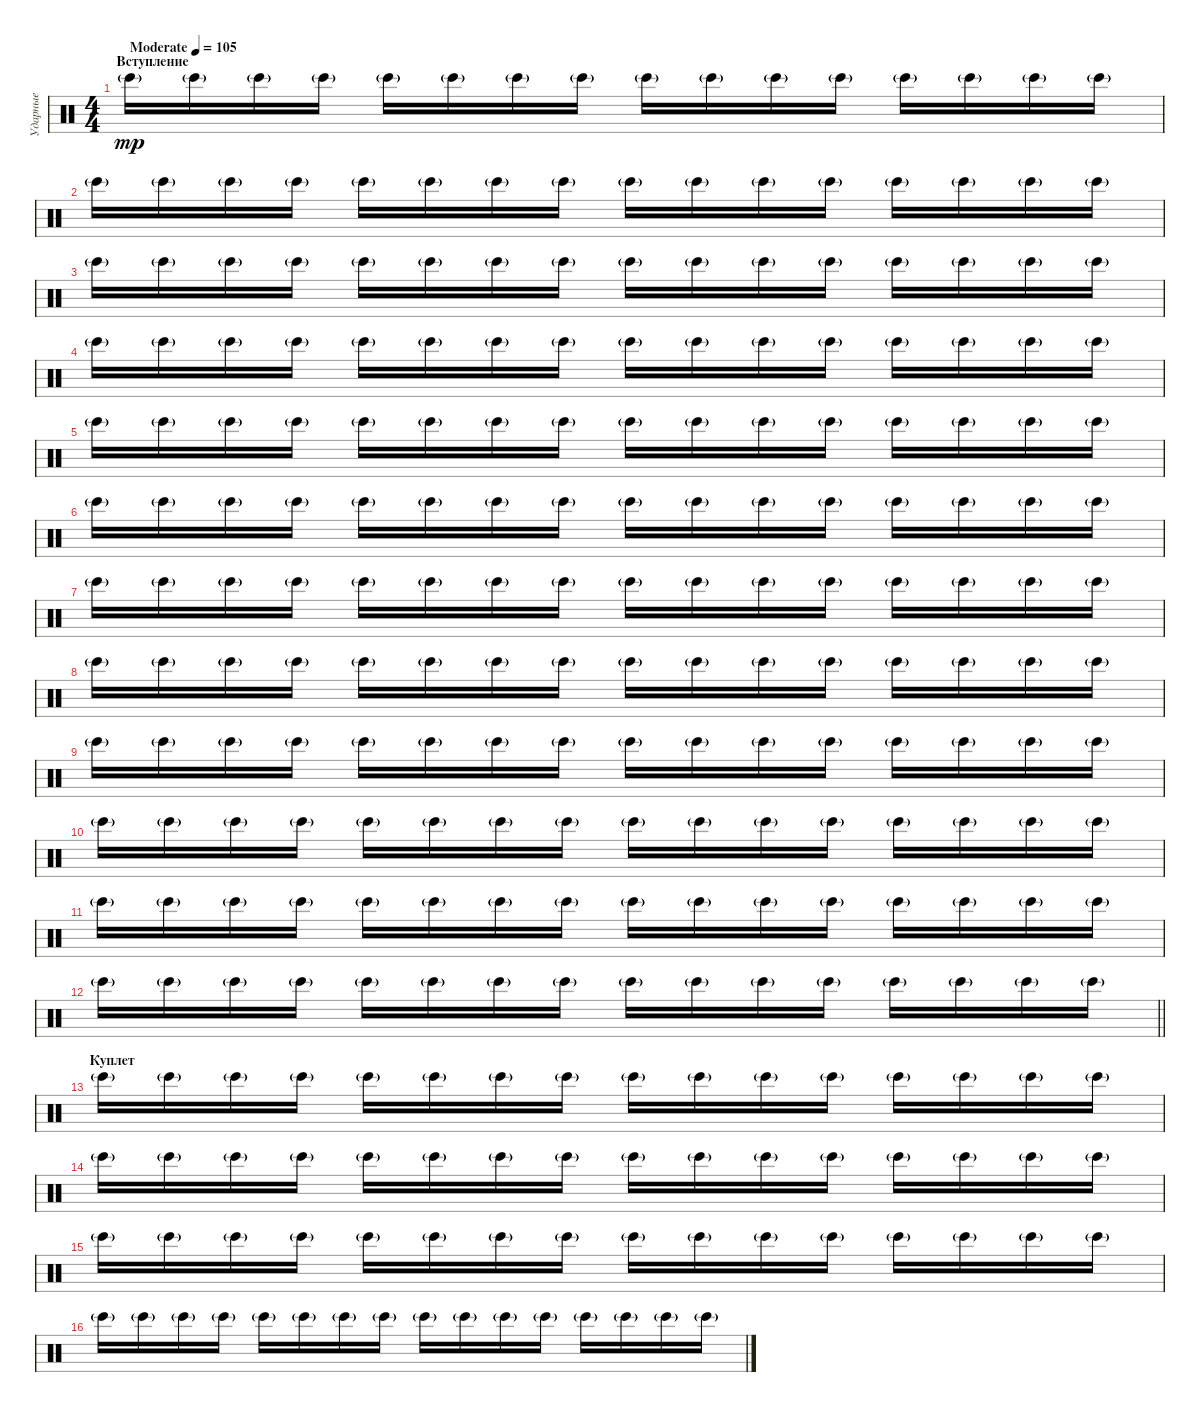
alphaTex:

\track ("Ударные" "Ударные") {instrument percussion}
\staff {score}
\articulation defaults
\ts (4 4)
\section ("" "Вступление")
\tempo (105 "Moderate")
\clef neutral
\ks c "Bongo High (hit)"{g}.16{dy mp} "Bongo High (hit)"{g}.16 "Bongo High (hit)"{g}.16 "Bongo High (hit)"{g}.16 "Bongo High (hit)"{g}.16 "Bongo High (hit)"{g}.16 "Bongo High (hit)"{g}.16 "Bongo High (hit)"{g}.16 "Bongo High (hit)"{g}.16 "Bongo High (hit)"{g}.16 "Bongo High (hit)"{g}.16 "Bongo High (hit)"{g}.16 "Bongo High (hit)"{g}.16 "Bongo High (hit)"{g}.16 "Bongo High (hit)"{g}.16 "Bongo High (hit)"{g}.16
|
"Bongo High (hit)"{g}.16 "Bongo High (hit)"{g}.16 "Bongo High (hit)"{g}.16 "Bongo High (hit)"{g}.16 "Bongo High (hit)"{g}.16 "Bongo High (hit)"{g}.16 "Bongo High (hit)"{g}.16 "Bongo High (hit)"{g}.16 "Bongo High (hit)"{g}.16 "Bongo High (hit)"{g}.16 "Bongo High (hit)"{g}.16 "Bongo High (hit)"{g}.16 "Bongo High (hit)"{g}.16 "Bongo High (hit)"{g}.16 "Bongo High (hit)"{g}.16 "Bongo High (hit)"{g}.16 |
"Bongo High (hit)"{g}.16 "Bongo High (hit)"{g}.16 "Bongo High (hit)"{g}.16 "Bongo High (hit)"{g}.16 "Bongo High (hit)"{g}.16 "Bongo High (hit)"{g}.16 "Bongo High (hit)"{g}.16 "Bongo High (hit)"{g}.16 "Bongo High (hit)"{g}.16 "Bongo High (hit)"{g}.16 "Bongo High (hit)"{g}.16 "Bongo High (hit)"{g}.16 "Bongo High (hit)"{g}.16 "Bongo High (hit)"{g}.16 "Bongo High (hit)"{g}.16 "Bongo High (hit)"{g}.16 |
"Bongo High (hit)"{g}.16 "Bongo High (hit)"{g}.16 "Bongo High (hit)"{g}.16 "Bongo High (hit)"{g}.16 "Bongo High (hit)"{g}.16 "Bongo High (hit)"{g}.16 "Bongo High (hit)"{g}.16 "Bongo High (hit)"{g}.16 "Bongo High (hit)"{g}.16 "Bongo High (hit)"{g}.16 "Bongo High (hit)"{g}.16 "Bongo High (hit)"{g}.16 "Bongo High (hit)"{g}.16 "Bongo High (hit)"{g}.16 "Bongo High (hit)"{g}.16 "Bongo High (hit)"{g}.16 |
"Bongo High (hit)"{g}.16 "Bongo High (hit)"{g}.16 "Bongo High (hit)"{g}.16 "Bongo High (hit)"{g}.16 "Bongo High (hit)"{g}.16 "Bongo High (hit)"{g}.16 "Bongo High (hit)"{g}.16 "Bongo High (hit)"{g}.16 "Bongo High (hit)"{g}.16 "Bongo High (hit)"{g}.16 "Bongo High (hit)"{g}.16 "Bongo High (hit)"{g}.16 "Bongo High (hit)"{g}.16 "Bongo High (hit)"{g}.16 "Bongo High (hit)"{g}.16 "Bongo High (hit)"{g}.16 |
"Bongo High (hit)"{g}.16 "Bongo High (hit)"{g}.16 "Bongo High (hit)"{g}.16 "Bongo High (hit)"{g}.16 "Bongo High (hit)"{g}.16 "Bongo High (hit)"{g}.16 "Bongo High (hit)"{g}.16 "Bongo High (hit)"{g}.16 "Bongo High (hit)"{g}.16 "Bongo High (hit)"{g}.16 "Bongo High (hit)"{g}.16 "Bongo High (hit)"{g}.16 "Bongo High (hit)"{g}.16 "Bongo High (hit)"{g}.16 "Bongo High (hit)"{g}.16 "Bongo High (hit)"{g}.16 |
"Bongo High (hit)"{g}.16 "Bongo High (hit)"{g}.16 "Bongo High (hit)"{g}.16 "Bongo High (hit)"{g}.16 "Bongo High (hit)"{g}.16 "Bongo High (hit)"{g}.16 "Bongo High (hit)"{g}.16 "Bongo High (hit)"{g}.16 "Bongo High (hit)"{g}.16 "Bongo High (hit)"{g}.16 "Bongo High (hit)"{g}.16 "Bongo High (hit)"{g}.16 "Bongo High (hit)"{g}.16 "Bongo High (hit)"{g}.16 "Bongo High (hit)"{g}.16 "Bongo High (hit)"{g}.16 |
"Bongo High (hit)"{g}.16 "Bongo High (hit)"{g}.16 "Bongo High (hit)"{g}.16 "Bongo High (hit)"{g}.16 "Bongo High (hit)"{g}.16 "Bongo High (hit)"{g}.16 "Bongo High (hit)"{g}.16 "Bongo High (hit)"{g}.16 "Bongo High (hit)"{g}.16 "Bongo High (hit)"{g}.16 "Bongo High (hit)"{g}.16 "Bongo High (hit)"{g}.16 "Bongo High (hit)"{g}.16 "Bongo High (hit)"{g}.16 "Bongo High (hit)"{g}.16 "Bongo High (hit)"{g}.16 |
"Bongo High (hit)"{g}.16 "Bongo High (hit)"{g}.16 "Bongo High (hit)"{g}.16 "Bongo High (hit)"{g}.16 "Bongo High (hit)"{g}.16 "Bongo High (hit)"{g}.16 "Bongo High (hit)"{g}.16 "Bongo High (hit)"{g}.16 "Bongo High (hit)"{g}.16 "Bongo High (hit)"{g}.16 "Bongo High (hit)"{g}.16 "Bongo High (hit)"{g}.16 "Bongo High (hit)"{g}.16 "Bongo High (hit)"{g}.16 "Bongo High (hit)"{g}.16 "Bongo High (hit)"{g}.16 |
"Bongo High (hit)"{g}.16 "Bongo High (hit)"{g}.16 "Bongo High (hit)"{g}.16 "Bongo High (hit)"{g}.16 "Bongo High (hit)"{g}.16 "Bongo High (hit)"{g}.16 "Bongo High (hit)"{g}.16 "Bongo High (hit)"{g}.16 "Bongo High (hit)"{g}.16 "Bongo High (hit)"{g}.16 "Bongo High (hit)"{g}.16 "Bongo High (hit)"{g}.16 "Bongo High (hit)"{g}.16 "Bongo High (hit)"{g}.16 "Bongo High (hit)"{g}.16 "Bongo High (hit)"{g}.16 |
"Bongo High (hit)"{g}.16 "Bongo High (hit)"{g}.16 "Bongo High (hit)"{g}.16 "Bongo High (hit)"{g}.16 "Bongo High (hit)"{g}.16 "Bongo High (hit)"{g}.16 "Bongo High (hit)"{g}.16 "Bongo High (hit)"{g}.16 "Bongo High (hit)"{g}.16 "Bongo High (hit)"{g}.16 "Bongo High (hit)"{g}.16 "Bongo High (hit)"{g}.16 "Bongo High (hit)"{g}.16 "Bongo High (hit)"{g}.16 "Bongo High (hit)"{g}.16 "Bongo High (hit)"{g}.16 |
\barLineRight lightlight "Bongo High (hit)"{g}.16 "Bongo High (hit)"{g}.16 "Bongo High (hit)"{g}.16 "Bongo High (hit)"{g}.16 "Bongo High (hit)"{g}.16 "Bongo High (hit)"{g}.16 "Bongo High (hit)"{g}.16 "Bongo High (hit)"{g}.16 "Bongo High (hit)"{g}.16 "Bongo High (hit)"{g}.16 "Bongo High (hit)"{g}.16 "Bongo High (hit)"{g}.16 "Bongo High (hit)"{g}.16 "Bongo High (hit)"{g}.16 "Bongo High (hit)"{g}.16 "Bongo High (hit)"{g}.16
|
\section ("" "Куплет")
"Bongo High (hit)"{g}.16 "Bongo High (hit)"{g}.16 "Bongo High (hit)"{g}.16 "Bongo High (hit)"{g}.16 "Bongo High (hit)"{g}.16 "Bongo High (hit)"{g}.16 "Bongo High (hit)"{g}.16 "Bongo High (hit)"{g}.16 "Bongo High (hit)"{g}.16 "Bongo High (hit)"{g}.16 "Bongo High (hit)"{g}.16 "Bongo High (hit)"{g}.16 "Bongo High (hit)"{g}.16 "Bongo High (hit)"{g}.16 "Bongo High (hit)"{g}.16 "Bongo High (hit)"{g}.16 |
"Bongo High (hit)"{g}.16 "Bongo High (hit)"{g}.16 "Bongo High (hit)"{g}.16 "Bongo High (hit)"{g}.16 "Bongo High (hit)"{g}.16 "Bongo High (hit)"{g}.16 "Bongo High (hit)"{g}.16 "Bongo High (hit)"{g}.16 "Bongo High (hit)"{g}.16 "Bongo High (hit)"{g}.16 "Bongo High (hit)"{g}.16 "Bongo High (hit)"{g}.16 "Bongo High (hit)"{g}.16 "Bongo High (hit)"{g}.16 "Bongo High (hit)"{g}.16 "Bongo High (hit)"{g}.16 |
"Bongo High (hit)"{g}.16 "Bongo High (hit)"{g}.16 "Bongo High (hit)"{g}.16 "Bongo High (hit)"{g}.16 "Bongo High (hit)"{g}.16 "Bongo High (hit)"{g}.16 "Bongo High (hit)"{g}.16 "Bongo High (hit)"{g}.16 "Bongo High (hit)"{g}.16 "Bongo High (hit)"{g}.16 "Bongo High (hit)"{g}.16 "Bongo High (hit)"{g}.16 "Bongo High (hit)"{g}.16 "Bongo High (hit)"{g}.16 "Bongo High (hit)"{g}.16 "Bongo High (hit)"{g}.16 |
"Bongo High (hit)"{g}.16 "Bongo High (hit)"{g}.16 "Bongo High (hit)"{g}.16 "Bongo High (hit)"{g}.16 "Bongo High (hit)"{g}.16 "Bongo High (hit)"{g}.16 "Bongo High (hit)"{g}.16 "Bongo High (hit)"{g}.16 "Bongo High (hit)"{g}.16 "Bongo High (hit)"{g}.16 "Bongo High (hit)"{g}.16 "Bongo High (hit)"{g}.16 "Bongo High (hit)"{g}.16 "Bongo High (hit)"{g}.16 "Bongo High (hit)"{g}.16 "Bongo High (hit)"{g}.16
